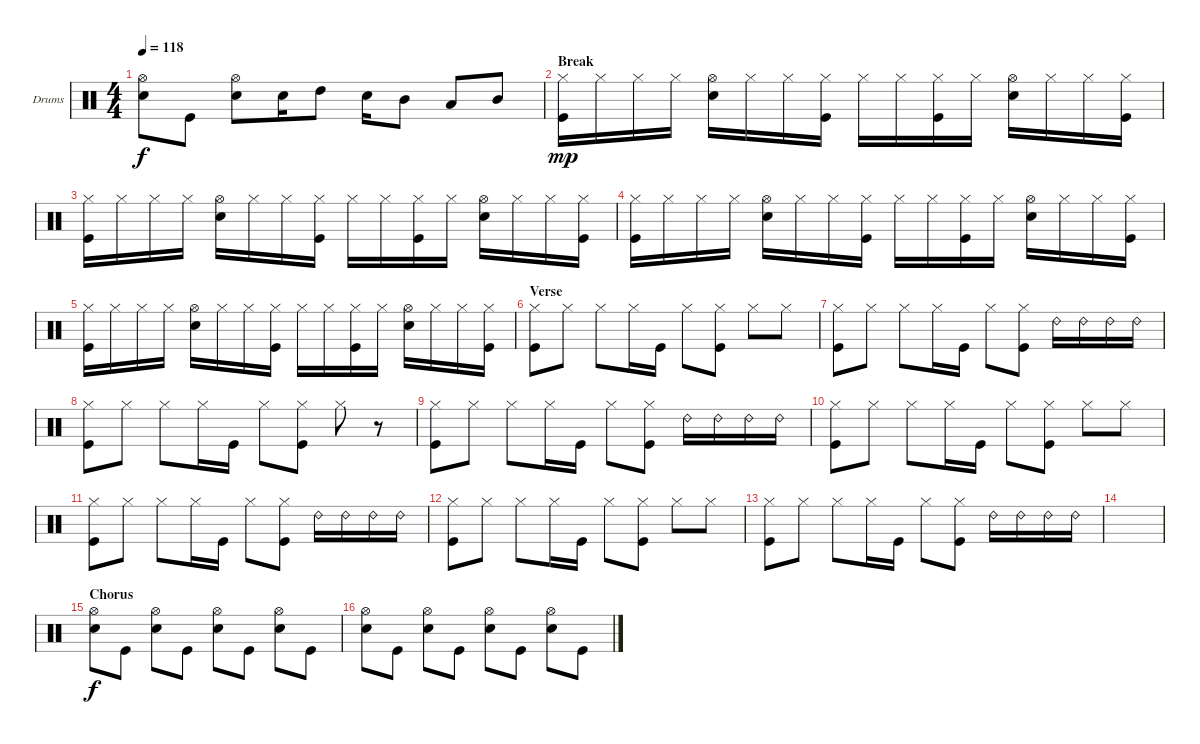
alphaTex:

\defaultSystemsLayout 4
\bracketExtendMode groupsimilarinstruments
\firstSystemTrackNameOrientation horizontal
\otherSystemsTrackNameOrientation horizontal
\track ("Drumkit" "Drums") {instrument percussion}
\staff {score}
\articulation defaults
\ts (4 4)
\tempo 118
\clef neutral
\ks c
("Snare (hit) 2" "Hi-Hat (open)").8{dy f} "Kick (hit)".8 ("Snare (hit) 2" "Hi-Hat (open)").8 "Snare (hit) 2".16 "High Tom (hit)".8 "Snare (hit) 2".16 "Mid Tom (hit)".8 "Low Tom (hit)".8 "Mid Tom (hit)".8 |
\section ("" "Break")
("Hi-Hat (closed)" "Kick (hit)").16{dy mp} "Hi-Hat (closed)".16 "Hi-Hat (closed)".16 "Hi-Hat (closed)".16 ("Hi-Hat (open)" "Snare (hit) 2").16 "Hi-Hat (closed)".16 "Hi-Hat (closed)".16 ("Kick (hit)" "Hi-Hat (closed)").16 "Hi-Hat (closed)".16 "Hi-Hat (closed)".16 ("Kick (hit)" "Hi-Hat (closed)").16 "Hi-Hat (closed)".16 ("Hi-Hat (open)" "Snare (hit) 2").16 "Hi-Hat (closed)".16 "Hi-Hat (closed)".16 ("Hi-Hat (closed)" "Kick (hit)").16 |
("Hi-Hat (closed)" "Kick (hit)").16 "Hi-Hat (closed)".16 "Hi-Hat (closed)".16 "Hi-Hat (closed)".16 ("Hi-Hat (open)" "Snare (hit) 2").16 "Hi-Hat (closed)".16 "Hi-Hat (closed)".16 ("Kick (hit)" "Hi-Hat (closed)").16 "Hi-Hat (closed)".16 "Hi-Hat (closed)".16 ("Kick (hit)" "Hi-Hat (closed)").16 "Hi-Hat (closed)".16 ("Hi-Hat (open)" "Snare (hit) 2").16 "Hi-Hat (closed)".16 "Hi-Hat (closed)".16 ("Hi-Hat (closed)" "Kick (hit)").16 |
("Hi-Hat (closed)" "Kick (hit)").16 "Hi-Hat (closed)".16 "Hi-Hat (closed)".16 "Hi-Hat (closed)".16 ("Hi-Hat (open)" "Snare (hit) 2").16 "Hi-Hat (closed)".16 "Hi-Hat (closed)".16 ("Kick (hit)" "Hi-Hat (closed)").16 "Hi-Hat (closed)".16 "Hi-Hat (closed)".16 ("Kick (hit)" "Hi-Hat (closed)").16 "Hi-Hat (closed)".16 ("Hi-Hat (open)" "Snare (hit) 2").16 "Hi-Hat (closed)".16 "Hi-Hat (closed)".16 ("Hi-Hat (closed)" "Kick (hit)").16 |
("Hi-Hat (closed)" "Kick (hit)").16 "Hi-Hat (closed)".16 "Hi-Hat (closed)".16 "Hi-Hat (closed)".16 ("Hi-Hat (open)" "Snare (hit) 2").16 "Hi-Hat (closed)".16 "Hi-Hat (closed)".16 ("Kick (hit)" "Hi-Hat (closed)").16 "Hi-Hat (closed)".16 "Hi-Hat (closed)".16 ("Kick (hit)" "Hi-Hat (closed)").16 "Hi-Hat (closed)".16 ("Hi-Hat (open)" "Snare (hit) 2").16 "Hi-Hat (closed)".16 "Hi-Hat (closed)".16 ("Hi-Hat (closed)" "Kick (hit)").16 |
\section ("" "Verse")
("Hi-Hat (closed)" "Kick (hit)").8 "Hi-Hat (closed)".8 "Hi-Hat (closed)".8 "Hi-Hat (closed)".16 "Kick (hit)".16 "Hi-Hat (closed)".8 ("Kick (hit)" "Hi-Hat (closed)").8 "Hi-Hat (closed)".8 "Hi-Hat (closed)".8 |
("Hi-Hat (closed)" "Kick (hit)").8 "Hi-Hat (closed)".8 "Hi-Hat (closed)".8 "Hi-Hat (closed)".16 "Kick (hit)".16 "Hi-Hat (closed)".8 ("Kick (hit)" "Hi-Hat (closed)").8 "Ride (bell) 2".16 "Ride (bell) 2".16 "Ride (bell) 2".16 "Ride (bell) 2".16 |
("Hi-Hat (closed)" "Kick (hit)").8 "Hi-Hat (closed)".8 "Hi-Hat (closed)".8 "Hi-Hat (closed)".16 "Kick (hit)".16 "Hi-Hat (closed)".8 ("Kick (hit)" "Hi-Hat (closed)").8 "Hi-Hat (closed)".8 r.8 |
("Hi-Hat (closed)" "Kick (hit)").8 "Hi-Hat (closed)".8 "Hi-Hat (closed)".8 "Hi-Hat (closed)".16 "Kick (hit)".16 "Hi-Hat (closed)".8 ("Kick (hit)" "Hi-Hat (closed)").8 "Ride (bell) 2".16 "Ride (bell) 2".16 "Ride (bell) 2".16 "Ride (bell) 2".16 |
("Hi-Hat (closed)" "Kick (hit)").8 "Hi-Hat (closed)".8 "Hi-Hat (closed)".8 "Hi-Hat (closed)".16 "Kick (hit)".16 "Hi-Hat (closed)".8 ("Kick (hit)" "Hi-Hat (closed)").8 "Hi-Hat (closed)".8 "Hi-Hat (closed)".8 |
("Hi-Hat (closed)" "Kick (hit)").8 "Hi-Hat (closed)".8 "Hi-Hat (closed)".8 "Hi-Hat (closed)".16 "Kick (hit)".16 "Hi-Hat (closed)".8 ("Kick (hit)" "Hi-Hat (closed)").8 "Ride (bell) 2".16 "Ride (bell) 2".16 "Ride (bell) 2".16 "Ride (bell) 2".16 |
("Hi-Hat (closed)" "Kick (hit)").8 "Hi-Hat (closed)".8 "Hi-Hat (closed)".8 "Hi-Hat (closed)".16 "Kick (hit)".16 "Hi-Hat (closed)".8 ("Kick (hit)" "Hi-Hat (closed)").8 "Hi-Hat (closed)".8 "Hi-Hat (closed)".8 |
("Hi-Hat (closed)" "Kick (hit)").8 "Hi-Hat (closed)".8 "Hi-Hat (closed)".8 "Hi-Hat (closed)".16 "Kick (hit)".16 "Hi-Hat (closed)".8 ("Kick (hit)" "Hi-Hat (closed)").8 "Ride (bell) 2".16 "Ride (bell) 2".16 "Ride (bell) 2".16 "Ride (bell) 2".16 |
|
\section ("" "Chorus")
("Snare (hit) 2" "Hi-Hat (open)").8{dy f} "Kick (hit)".8 ("Snare (hit) 2" "Hi-Hat (open)").8 "Kick (hit)".8 ("Hi-Hat (open)" "Snare (hit) 2").8 "Kick (hit)".8 ("Hi-Hat (open)" "Snare (hit) 2").8 "Kick (hit)".8 |
("Snare (hit) 2" "Hi-Hat (open)").8 "Kick (hit)".8 ("Snare (hit) 2" "Hi-Hat (open)").8 "Kick (hit)".8 ("Hi-Hat (open)" "Snare (hit) 2").8 "Kick (hit)".8 ("Hi-Hat (open)" "Snare (hit) 2").8 "Kick (hit)".8
